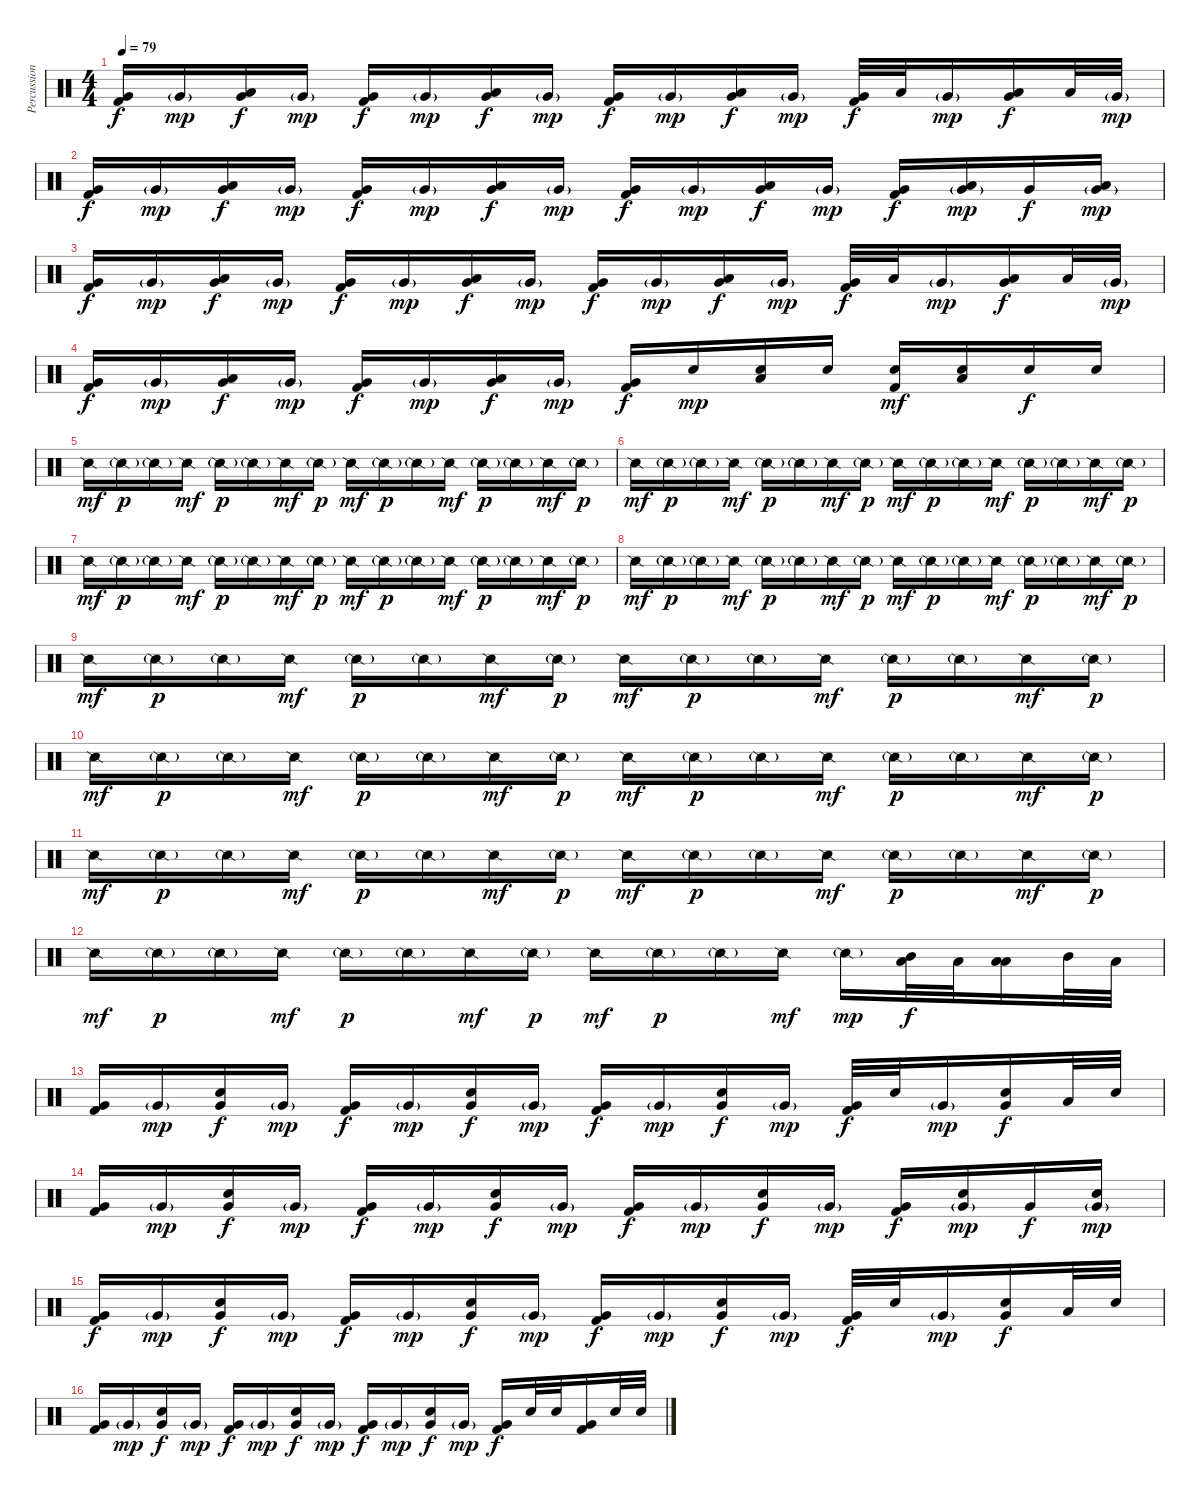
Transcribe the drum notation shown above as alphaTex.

\track ("Percussion" "Percussion") {instrument percussion}
\staff {score}
\articulation defaults
\ts (4 4)
\tempo 79
\clef neutral
\ks c
("Very Low Tom (hit)" "Kick (hit) 2").16{dy f} "Very Low Tom (hit)"{g}.16{dy mp} ("Low Tom (hit)" "Very Low Tom (hit)").16{dy f} "Very Low Tom (hit)"{g}.16{dy mp} ("Very Low Tom (hit)" "Kick (hit) 2").16{dy f} "Very Low Tom (hit)"{g}.16{dy mp} ("Low Tom (hit)" "Very Low Tom (hit)").16{dy f} "Very Low Tom (hit)"{g}.16{dy mp} ("Very Low Tom (hit)" "Kick (hit) 2").16{dy f} "Very Low Tom (hit)"{g}.16{dy mp} ("Low Tom (hit)" "Very Low Tom (hit)").16{dy f} "Very Low Tom (hit)"{g}.16{dy mp} ("Very Low Tom (hit)" "Kick (hit) 2").32{dy f} "Low Tom (hit)".32 "Very Low Tom (hit)"{g}.16{dy mp} ("Low Tom (hit)" "Very Low Tom (hit)").16{dy f} "Low Tom (hit)".32 "Very Low Tom (hit)"{g}.32{dy mp} |
("Very Low Tom (hit)" "Kick (hit) 2").16{dy f} "Very Low Tom (hit)"{g}.16{dy mp} ("Low Tom (hit)" "Very Low Tom (hit)").16{dy f} "Very Low Tom (hit)"{g}.16{dy mp} ("Very Low Tom (hit)" "Kick (hit) 2").16{dy f} "Very Low Tom (hit)"{g}.16{dy mp} ("Low Tom (hit)" "Very Low Tom (hit)").16{dy f} "Very Low Tom (hit)"{g}.16{dy mp} ("Very Low Tom (hit)" "Kick (hit) 2").16{dy f} "Very Low Tom (hit)"{g}.16{dy mp} ("Low Tom (hit)" "Very Low Tom (hit)").16{dy f} "Very Low Tom (hit)"{g}.16{dy mp} ("Very Low Tom (hit)" "Kick (hit) 2").16{dy f} ("Low Tom (hit)" "Very Low Tom (hit)"{g}).16{dy mp} "Very Low Tom (hit)".16{dy f} ("Low Tom (hit)" "Very Low Tom (hit)"{g}).16{dy mp} |
("Very Low Tom (hit)" "Kick (hit) 2").16{dy f} "Very Low Tom (hit)"{g}.16{dy mp} ("Low Tom (hit)" "Very Low Tom (hit)").16{dy f} "Very Low Tom (hit)"{g}.16{dy mp} ("Very Low Tom (hit)" "Kick (hit) 2").16{dy f} "Very Low Tom (hit)"{g}.16{dy mp} ("Low Tom (hit)" "Very Low Tom (hit)").16{dy f} "Very Low Tom (hit)"{g}.16{dy mp} ("Very Low Tom (hit)" "Kick (hit) 2").16{dy f} "Very Low Tom (hit)"{g}.16{dy mp} ("Low Tom (hit)" "Very Low Tom (hit)").16{dy f} "Very Low Tom (hit)"{g}.16{dy mp} ("Very Low Tom (hit)" "Kick (hit) 2").32{dy f} "Low Tom (hit)".32 "Very Low Tom (hit)"{g}.16{dy mp} ("Low Tom (hit)" "Very Low Tom (hit)").16{dy f} "Low Tom (hit)".32 "Very Low Tom (hit)"{g}.32{dy mp} |
("Very Low Tom (hit)" "Kick (hit) 2").16{dy f} "Very Low Tom (hit)"{g}.16{dy mp} ("Low Tom (hit)" "Very Low Tom (hit)").16{dy f} "Very Low Tom (hit)"{g}.16{dy mp} ("Very Low Tom (hit)" "Kick (hit) 2").16{dy f} "Very Low Tom (hit)"{g}.16{dy mp} ("Low Tom (hit)" "Very Low Tom (hit)").16{dy f} "Very Low Tom (hit)"{g}.16{dy mp} ("Very Low Tom (hit)" "Kick (hit) 2").16{dy f} "Snare (hit) 2".16{dy mp} ("Low Tom (hit)" "Snare (hit) 2").16 "Snare (hit) 2".16 ("Snare (hit) 2" "Kick (hit) 2").16{dy mf} ("Low Tom (hit)" "Snare (hit) 2").16 "Snare (hit) 2".16{dy f} "Snare (hit) 2".16 |
"Snare (side stick) 2".16{dy mf} "Snare (side stick) 2"{g}.16{dy p} "Snare (side stick) 2"{g}.16 "Snare (side stick) 2".16{dy mf} "Snare (side stick) 2"{g}.16{dy p} "Snare (side stick) 2"{g}.16 "Snare (side stick) 2".16{dy mf} "Snare (side stick) 2"{g}.16{dy p} "Snare (side stick) 2".16{dy mf} "Snare (side stick) 2"{g}.16{dy p} "Snare (side stick) 2"{g}.16 "Snare (side stick) 2".16{dy mf} "Snare (side stick) 2"{g}.16{dy p} "Snare (side stick) 2"{g}.16 "Snare (side stick) 2".16{dy mf} "Snare (side stick) 2"{g}.16{dy p} |
"Snare (side stick) 2".16{dy mf} "Snare (side stick) 2"{g}.16{dy p} "Snare (side stick) 2"{g}.16 "Snare (side stick) 2".16{dy mf} "Snare (side stick) 2"{g}.16{dy p} "Snare (side stick) 2"{g}.16 "Snare (side stick) 2".16{dy mf} "Snare (side stick) 2"{g}.16{dy p} "Snare (side stick) 2".16{dy mf} "Snare (side stick) 2"{g}.16{dy p} "Snare (side stick) 2"{g}.16 "Snare (side stick) 2".16{dy mf} "Snare (side stick) 2"{g}.16{dy p} "Snare (side stick) 2"{g}.16 "Snare (side stick) 2".16{dy mf} "Snare (side stick) 2"{g}.16{dy p} |
"Snare (side stick) 2".16{dy mf} "Snare (side stick) 2"{g}.16{dy p} "Snare (side stick) 2"{g}.16 "Snare (side stick) 2".16{dy mf} "Snare (side stick) 2"{g}.16{dy p} "Snare (side stick) 2"{g}.16 "Snare (side stick) 2".16{dy mf} "Snare (side stick) 2"{g}.16{dy p} "Snare (side stick) 2".16{dy mf} "Snare (side stick) 2"{g}.16{dy p} "Snare (side stick) 2"{g}.16 "Snare (side stick) 2".16{dy mf} "Snare (side stick) 2"{g}.16{dy p} "Snare (side stick) 2"{g}.16 "Snare (side stick) 2".16{dy mf} "Snare (side stick) 2"{g}.16{dy p} |
"Snare (side stick) 2".16{dy mf} "Snare (side stick) 2"{g}.16{dy p} "Snare (side stick) 2"{g}.16 "Snare (side stick) 2".16{dy mf} "Snare (side stick) 2"{g}.16{dy p} "Snare (side stick) 2"{g}.16 "Snare (side stick) 2".16{dy mf} "Snare (side stick) 2"{g}.16{dy p} "Snare (side stick) 2".16{dy mf} "Snare (side stick) 2"{g}.16{dy p} "Snare (side stick) 2"{g}.16 "Snare (side stick) 2".16{dy mf} "Snare (side stick) 2"{g}.16{dy p} "Snare (side stick) 2"{g}.16 "Snare (side stick) 2".16{dy mf} "Snare (side stick) 2"{g}.16{dy p} |
"Snare (side stick) 2".16{dy mf} "Snare (side stick) 2"{g}.16{dy p} "Snare (side stick) 2"{g}.16 "Snare (side stick) 2".16{dy mf} "Snare (side stick) 2"{g}.16{dy p} "Snare (side stick) 2"{g}.16 "Snare (side stick) 2".16{dy mf} "Snare (side stick) 2"{g}.16{dy p} "Snare (side stick) 2".16{dy mf} "Snare (side stick) 2"{g}.16{dy p} "Snare (side stick) 2"{g}.16 "Snare (side stick) 2".16{dy mf} "Snare (side stick) 2"{g}.16{dy p} "Snare (side stick) 2"{g}.16 "Snare (side stick) 2".16{dy mf} "Snare (side stick) 2"{g}.16{dy p} |
"Snare (side stick) 2".16{dy mf} "Snare (side stick) 2"{g}.16{dy p} "Snare (side stick) 2"{g}.16 "Snare (side stick) 2".16{dy mf} "Snare (side stick) 2"{g}.16{dy p} "Snare (side stick) 2"{g}.16 "Snare (side stick) 2".16{dy mf} "Snare (side stick) 2"{g}.16{dy p} "Snare (side stick) 2".16{dy mf} "Snare (side stick) 2"{g}.16{dy p} "Snare (side stick) 2"{g}.16 "Snare (side stick) 2".16{dy mf} "Snare (side stick) 2"{g}.16{dy p} "Snare (side stick) 2"{g}.16 "Snare (side stick) 2".16{dy mf} "Snare (side stick) 2"{g}.16{dy p} |
"Snare (side stick) 2".16{dy mf} "Snare (side stick) 2"{g}.16{dy p} "Snare (side stick) 2"{g}.16 "Snare (side stick) 2".16{dy mf} "Snare (side stick) 2"{g}.16{dy p} "Snare (side stick) 2"{g}.16 "Snare (side stick) 2".16{dy mf} "Snare (side stick) 2"{g}.16{dy p} "Snare (side stick) 2".16{dy mf} "Snare (side stick) 2"{g}.16{dy p} "Snare (side stick) 2"{g}.16 "Snare (side stick) 2".16{dy mf} "Snare (side stick) 2"{g}.16{dy p} "Snare (side stick) 2"{g}.16 "Snare (side stick) 2".16{dy mf} "Snare (side stick) 2"{g}.16{dy p} |
"Snare (side stick) 2".16{dy mf} "Snare (side stick) 2"{g}.16{dy p} "Snare (side stick) 2"{g}.16 "Snare (side stick) 2".16{dy mf} "Snare (side stick) 2"{g}.16{dy p} "Snare (side stick) 2"{g}.16 "Snare (side stick) 2".16{dy mf} "Snare (side stick) 2"{g}.16{dy p} "Snare (side stick) 2".16{dy mf} "Snare (side stick) 2"{g}.16{dy p} "Snare (side stick) 2"{g}.16 "Snare (side stick) 2".16{dy mf} "Snare (side stick) 2"{g}.16{dy mp} ("Mid Tom (hit)" "Low Tom (hit)").32{dy f} "Low Tom (hit)".32 ("Low Tom (hit)" "Low Tom (hit)").16 "Mid Tom (hit)".32 "Low Tom (hit)".32 |
("Very Low Tom (hit)" "Kick (hit) 2").16 "Very Low Tom (hit)"{g}.16{dy mp} ("Snare (hit) 2" "Very Low Tom (hit)").16{dy f} "Very Low Tom (hit)"{g}.16{dy mp} ("Very Low Tom (hit)" "Kick (hit) 2").16{dy f} "Very Low Tom (hit)"{g}.16{dy mp} ("Snare (hit) 2" "Very Low Tom (hit)").16{dy f} "Very Low Tom (hit)"{g}.16{dy mp} ("Very Low Tom (hit)" "Kick (hit) 2").16{dy f} "Very Low Tom (hit)"{g}.16{dy mp} ("Snare (hit) 2" "Very Low Tom (hit)").16{dy f} "Very Low Tom (hit)"{g}.16{dy mp} ("Very Low Tom (hit)" "Kick (hit) 2").32{dy f} "Snare (hit) 2".32 "Very Low Tom (hit)"{g}.16{dy mp} ("Snare (hit) 2" "Very Low Tom (hit)").16{dy f} "Low Tom (hit)".32 "Snare (hit) 2".32 |
("Very Low Tom (hit)" "Kick (hit) 2").16 "Very Low Tom (hit)"{g}.16{dy mp} ("Snare (hit) 2" "Very Low Tom (hit)").16{dy f} "Very Low Tom (hit)"{g}.16{dy mp} ("Very Low Tom (hit)" "Kick (hit) 2").16{dy f} "Very Low Tom (hit)"{g}.16{dy mp} ("Snare (hit) 2" "Very Low Tom (hit)").16{dy f} "Very Low Tom (hit)"{g}.16{dy mp} ("Very Low Tom (hit)" "Kick (hit) 2").16{dy f} "Very Low Tom (hit)"{g}.16{dy mp} ("Snare (hit) 2" "Very Low Tom (hit)").16{dy f} "Very Low Tom (hit)"{g}.16{dy mp} ("Very Low Tom (hit)" "Kick (hit) 2").16{dy f} ("Snare (hit) 2" "Very Low Tom (hit)"{g}).16{dy mp} "Very Low Tom (hit)".16{dy f} ("Snare (hit) 2" "Very Low Tom (hit)"{g}).16{dy mp} |
("Very Low Tom (hit)" "Kick (hit) 2").16{dy f} "Very Low Tom (hit)"{g}.16{dy mp} ("Snare (hit) 2" "Very Low Tom (hit)").16{dy f} "Very Low Tom (hit)"{g}.16{dy mp} ("Very Low Tom (hit)" "Kick (hit) 2").16{dy f} "Very Low Tom (hit)"{g}.16{dy mp} ("Snare (hit) 2" "Very Low Tom (hit)").16{dy f} "Very Low Tom (hit)"{g}.16{dy mp} ("Very Low Tom (hit)" "Kick (hit) 2").16{dy f} "Very Low Tom (hit)"{g}.16{dy mp} ("Snare (hit) 2" "Very Low Tom (hit)").16{dy f} "Very Low Tom (hit)"{g}.16{dy mp} ("Very Low Tom (hit)" "Kick (hit) 2").32{dy f} "Snare (hit) 2".32 "Very Low Tom (hit)"{g}.16{dy mp} ("Snare (hit) 2" "Very Low Tom (hit)").16{dy f} "Low Tom (hit)".32 "Snare (hit) 2".32 |
("Very Low Tom (hit)" "Kick (hit) 2").16 "Very Low Tom (hit)"{g}.16{dy mp} ("Snare (hit) 2" "Very Low Tom (hit)").16{dy f} "Very Low Tom (hit)"{g}.16{dy mp} ("Very Low Tom (hit)" "Kick (hit) 2").16{dy f} "Very Low Tom (hit)"{g}.16{dy mp} ("Snare (hit) 2" "Very Low Tom (hit)").16{dy f} "Very Low Tom (hit)"{g}.16{dy mp} ("Very Low Tom (hit)" "Kick (hit) 2").16{dy f} "Very Low Tom (hit)"{g}.16{dy mp} ("Snare (hit) 2" "Very Low Tom (hit)").16{dy f} "Very Low Tom (hit)"{g}.16{dy mp} ("Very Low Tom (hit)" "Kick (hit) 2").16{dy f} "Snare (hit) 2".32 "Snare (hit) 2".32 ("Very Low Tom (hit)" "Kick (hit) 2").16 "Snare (hit) 2".32 "Snare (hit) 2".32
